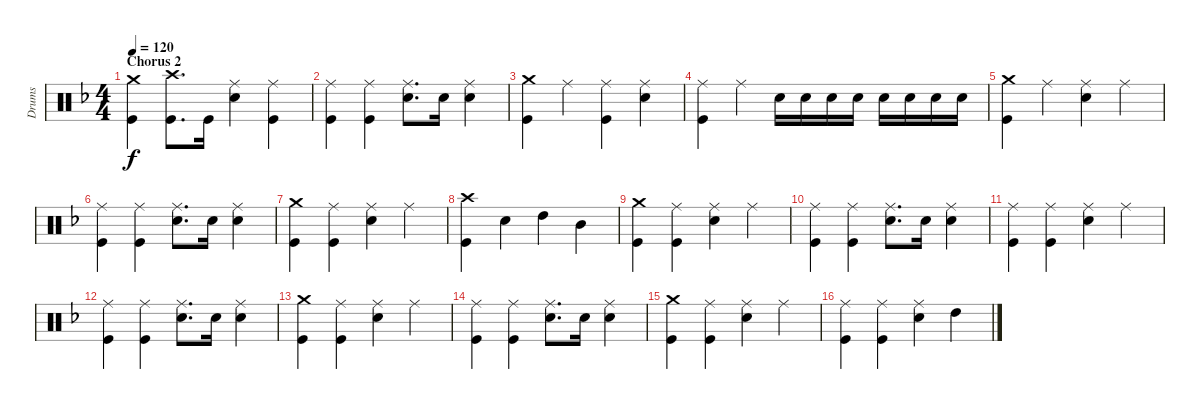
\track ("Drums" "Drums") {instrument percussion}
\staff {score}
\articulation defaults
\ts (4 4)
\section ("" "Chorus 2")
\tempo 120
\clef neutral
\ks f
("Crash medium (hit)" "Kick (hit)").4{dy f} ("Crash high (hit)" "Kick (hit)").8{d} "Kick (hit)".16 ("Ride (middle)" "Snare (hit) 2").4 ("Ride (middle)" "Kick (hit)").4 |
("Ride (middle)" "Kick (hit)").4 ("Ride (middle)" "Kick (hit)").4 ("Ride (middle)" "Snare (hit) 2").8{d} "Snare (hit) 2".16 ("Ride (middle)" "Snare (hit) 2").4 |
("Crash medium (hit)" "Kick (hit)").4 "Ride (middle)".4 ("Ride (middle)" "Kick (hit)").4 ("Ride (middle)" "Snare (hit) 2").4 |
("Ride (middle)" "Kick (hit)").4 "Ride (middle)".4 "Snare (hit) 2".16 "Snare (hit) 2".16 "Snare (hit) 2".16 "Snare (hit) 2".16 "Snare (hit) 2".16 "Snare (hit) 2".16 "Snare (hit) 2".16 "Snare (hit) 2".16 |
("Crash medium (hit)" "Kick (hit)").4 "Ride (middle)".4 ("Ride (middle)" "Snare (hit) 2").4 "Ride (middle)".4 |
("Ride (middle)" "Kick (hit)").4 ("Ride (middle)" "Kick (hit)").4 ("Ride (middle)" "Snare (hit) 2").8{d} "Snare (hit) 2".16 ("Ride (middle)" "Snare (hit) 2").4 |
("Crash medium (hit)" "Kick (hit)").4 ("Ride (middle)" "Kick (hit)").4 ("Ride (middle)" "Snare (hit) 2").4 "Ride (middle)".4 |
("Crash high (hit)" "Kick (hit)").4 "Snare (hit) 2".4 "High Tom (hit)".4 "Mid Tom (hit)".4 |
("Crash medium (hit)" "Kick (hit)").4 ("Ride (middle)" "Kick (hit)").4 ("Ride (middle)" "Snare (hit) 2").4 "Ride (middle)".4 |
("Ride (middle)" "Kick (hit)").4 ("Ride (middle)" "Kick (hit)").4 ("Ride (middle)" "Snare (hit) 2").8{d} "Snare (hit) 2".16 ("Ride (middle)" "Snare (hit) 2").4 |
("Ride (middle)" "Kick (hit)").4 ("Ride (middle)" "Kick (hit)").4 ("Ride (middle)" "Snare (hit) 2").4 "Ride (middle)".4 |
("Ride (middle)" "Kick (hit)").4 ("Ride (middle)" "Kick (hit)").4 ("Ride (middle)" "Snare (hit) 2").8{d} "Snare (hit) 2".16 ("Ride (middle)" "Snare (hit) 2").4 |
("Crash medium (hit)" "Kick (hit)").4 ("Ride (middle)" "Kick (hit)").4 ("Ride (middle)" "Snare (hit) 2").4 "Ride (middle)".4 |
("Ride (middle)" "Kick (hit)").4 ("Ride (middle)" "Kick (hit)").4 ("Ride (middle)" "Snare (hit) 2").8{d} "Snare (hit) 2".16 ("Ride (middle)" "Snare (hit) 2").4 |
("Crash medium (hit)" "Kick (hit)").4 ("Ride (middle)" "Kick (hit)").4 ("Ride (middle)" "Snare (hit) 2").4 "Ride (middle)".4 |
("Ride (middle)" "Kick (hit)").4 ("Ride (middle)" "Kick (hit)").4 ("Ride (middle)" "Snare (hit) 2").4 "High Tom (hit)".4
